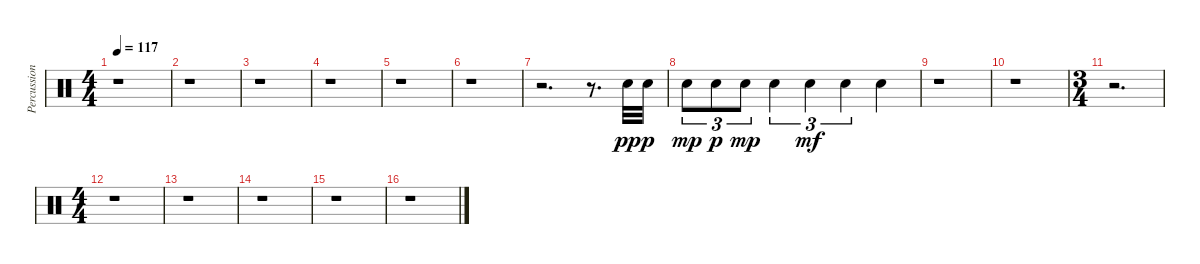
\track ("Percussion" "Percussion") {instrument percussion}
\staff {score}
\articulation defaults
\ts (4 4)
\tempo 117
\clef neutral
\ks c
r.1{dy mf} |
r.1 |
r.1 |
r.1 |
r.1 |
r.1 |
r.2{d} r.8{d} "Snare (hit) 2".32{dy pp} "Snare (hit) 2".32{dy p} |
"Snare (hit) 2".8{tu (3 2) dy mp} "Snare (hit) 2".8{tu (3 2) dy p} "Snare (hit) 2".8{tu (3 2) dy mp} "Snare (hit) 2".4{tu (3 2)} "Snare (hit) 2".4{tu (3 2) dy mf} "Snare (hit) 2".4{tu (3 2)} "Snare (hit) 2".4 |
r.1 |
r.1 |
\ts (3 4)
r.2{d} |
\ts (4 4)
r.1 |
r.1 |
r.1 |
r.1 |
r.1
